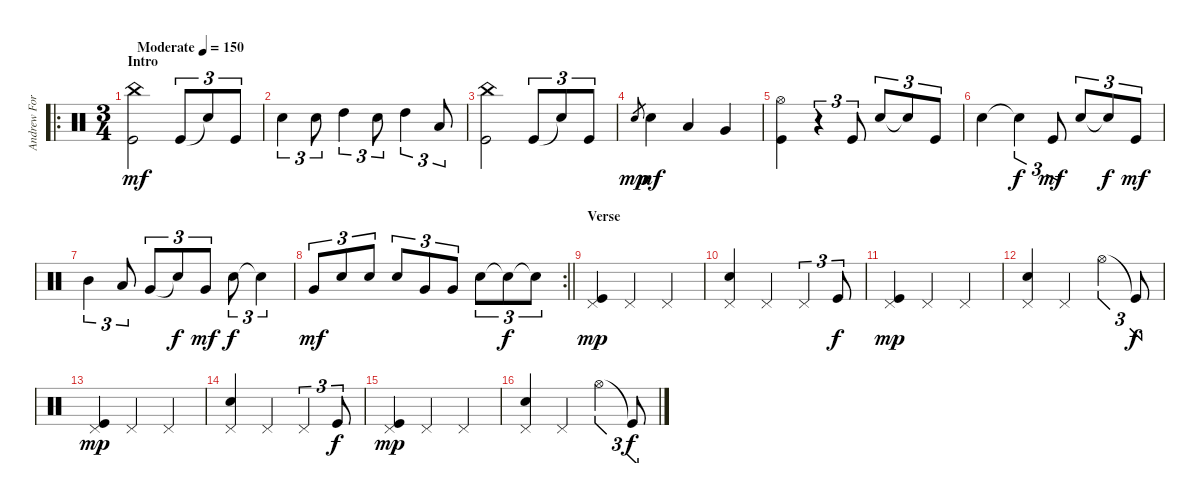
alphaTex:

\track ("Andrew Forsman" "Andrew For") {instrument percussion}
\staff {score}
\articulation defaults
\ro
\ts (3 4)
\section ("" "Intro")
\tempo (150 "Moderate")
\clef neutral
\ks c
("China (hit)" "Kick (hit)").2{dy mf} "Kick (hit)".8{tu (3 2)} "Snare (hit)"{t}.8{tu (3 2)} "Kick (hit)".8{tu (3 2)} |
"Electric Snare (hit)".4{tu (3 2)} "Electric Snare (hit)".8{tu (3 2)} "High Tom (hit)".4{tu (3 2)} "Electric Snare (hit)".8{tu (3 2)} "High Tom (hit)".4{tu (3 2)} "Low Tom (hit)".8{tu (3 2)} |
("China (hit)" "Kick (hit)").2 "Kick (hit)".8{tu (3 2)} "Snare (hit)"{t}.8{tu (3 2)} "Kick (hit)".8{tu (3 2)} |
"Electric Snare (hit)".8{gr dy mp} "Electric Snare (hit)".4{dy mf} "Low Tom (hit)".4 "Very Low Tom (hit)".4 |
("Hi-Hat (open)" "Kick (hit)").4 r.4{tu (3 2)} "Kick (hit)".8{tu (3 2)} "Electric Snare (hit)".8{tu (3 2)} "Snare (hit)"{t}.8{tu (3 2)} "Kick (hit)".8{tu (3 2)} |
"Electric Snare (hit)".4 "Snare (hit)"{t}.4{tu (3 2) dy f} "Kick (hit)".8{tu (3 2) dy mf} "Electric Snare (hit)".8{tu (3 2)} "Snare (hit)"{t}.8{tu (3 2) dy f} "Kick (hit)".8{tu (3 2) dy mf} |
"Mid Tom (hit)".4{tu (3 2)} "Low Tom (hit)".8{tu (3 2)} "Very Low Tom (hit)".8{tu (3 2)} "Snare (hit)"{t}.8{tu (3 2) dy f} "Very Low Tom (hit)".8{tu (3 2) dy mf} "Electric Snare (hit)".8{tu (3 2) dy f} "Snare (hit)"{t}.4{tu (3 2)} |
\rc 2
\barLineRight lightlight "Very Low Tom (hit)".8{tu (3 2) dy mf} "Electric Snare (hit)".8{tu (3 2)} "Electric Snare (hit)".8{tu (3 2)} "Electric Snare (hit)".8{tu (3 2)} "Very Low Tom (hit)".8{tu (3 2)} "Very Low Tom (hit)".8{tu (3 2)} "Electric Snare (hit)".8{tu (3 2)} "Snare (hit)"{t}.8{tu (3 2) dy f} "Snare (hit)"{t}.8{tu (3 2)}
|
\section ("" "Verse")
("Pedal Hi-Hat (hit)" "Kick (hit)").4{dy mp} "Pedal Hi-Hat (hit)".4 "Pedal Hi-Hat (hit)".4 |
("Pedal Hi-Hat (hit)" "Electric Snare (hit)").4 "Pedal Hi-Hat (hit)".4 "Pedal Hi-Hat (hit)".4{tu (3 2)} "Kick (hit)".8{tu (3 2) dy f} |
("Pedal Hi-Hat (hit)" "Kick (hit)").4{dy mp} "Pedal Hi-Hat (hit)".4 "Pedal Hi-Hat (hit)".4 |
("Pedal Hi-Hat (hit)" "Electric Snare (hit)").4 "Pedal Hi-Hat (hit)".4 "Hi-Hat (open)".4{tu (3 2)} "Kick (hit)"{t}.8{tu (3 2) dy f} |
("Pedal Hi-Hat (hit)" "Kick (hit)").4{dy mp} "Pedal Hi-Hat (hit)".4 "Pedal Hi-Hat (hit)".4 |
("Pedal Hi-Hat (hit)" "Electric Snare (hit)").4 "Pedal Hi-Hat (hit)".4 "Pedal Hi-Hat (hit)".4{tu (3 2)} "Kick (hit)".8{tu (3 2) dy f} |
("Pedal Hi-Hat (hit)" "Kick (hit)").4{dy mp} "Pedal Hi-Hat (hit)".4 "Pedal Hi-Hat (hit)".4 |
("Pedal Hi-Hat (hit)" "Electric Snare (hit)").4 "Pedal Hi-Hat (hit)".4 "Hi-Hat (open)".4{tu (3 2)} "Kick (hit)"{t}.8{tu (3 2) dy f}
